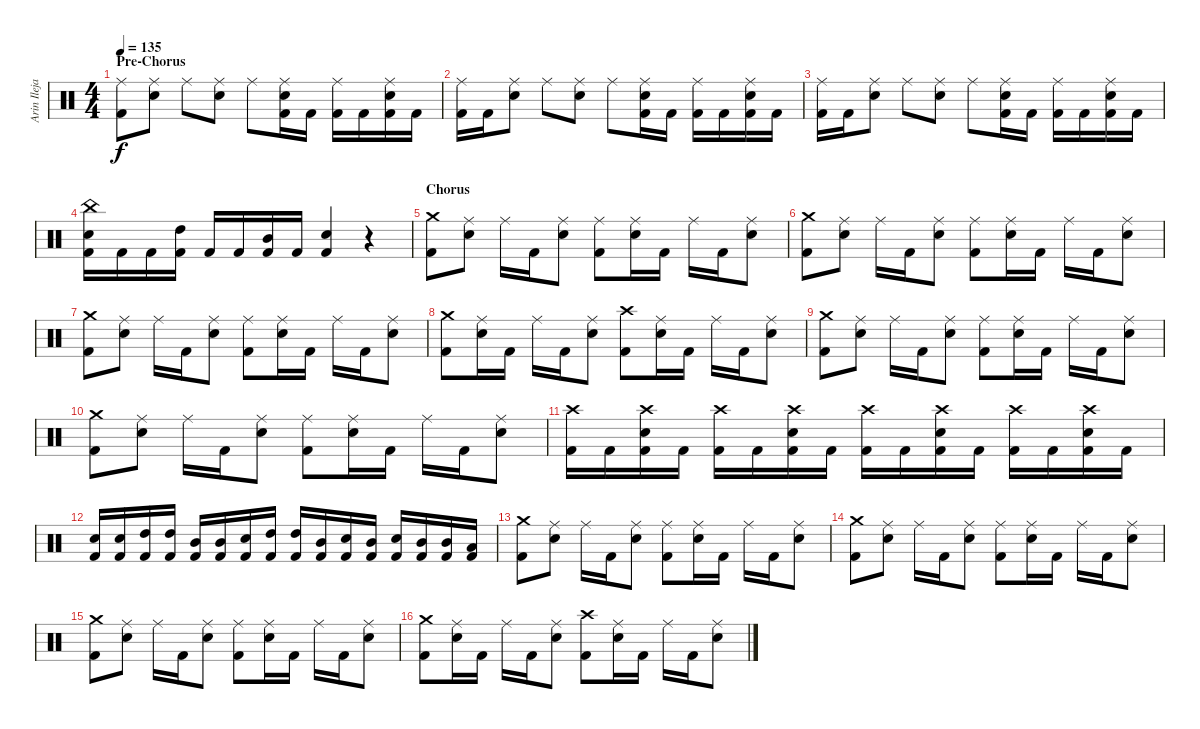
\track ("Arin Ilejay" "Arin Ileja") {instrument percussion}
\staff {score}
\articulation defaults
\ts (4 4)
\section ("" "Pre-Chorus")
\tempo 135
\clef neutral
\ks c
("Ride (middle)" "Kick (hit) 2").8{dy f} ("Ride (middle)" "Snare (hit) 2").8 "Ride (middle)".8 ("Ride (middle)" "Snare (hit) 2").8 "Ride (middle)".8 ("Ride (middle)" "Snare (hit) 2" "Kick (hit) 2").16 "Kick (hit) 2".16 ("Ride (middle)" "Kick (hit) 2").16 "Kick (hit) 2".16 ("Ride (middle)" "Snare (hit) 2" "Kick (hit) 2").16 "Kick (hit) 2".16 |
("Ride (middle)" "Kick (hit) 2").16 "Kick (hit) 2".16 ("Ride (middle)" "Snare (hit) 2").8 "Ride (middle)".8 ("Ride (middle)" "Snare (hit) 2").8 "Ride (middle)".8 ("Ride (middle)" "Snare (hit) 2" "Kick (hit) 2").16 "Kick (hit) 2".16 ("Ride (middle)" "Kick (hit) 2").16 "Kick (hit) 2".16 ("Ride (middle)" "Snare (hit) 2" "Kick (hit) 2").16 "Kick (hit) 2".16 |
("Ride (middle)" "Kick (hit) 2").16 "Kick (hit) 2".16 ("Ride (middle)" "Snare (hit) 2").8 "Ride (middle)".8 ("Ride (middle)" "Snare (hit) 2").8 "Ride (middle)".8 ("Ride (middle)" "Snare (hit) 2" "Kick (hit) 2").16 "Kick (hit) 2".16 ("Ride (middle)" "Kick (hit) 2").16 "Kick (hit) 2".16 ("Ride (middle)" "Snare (hit) 2" "Kick (hit) 2").16 "Kick (hit) 2".16 |
("China (hit)" "Kick (hit) 2" "Snare (hit) 2").16 "Kick (hit) 2".16 "Kick (hit) 2".16 ("Kick (hit) 2" "High Tom (hit)").16 "Kick (hit) 2".16 "Kick (hit) 2".16 ("Kick (hit) 2" "Mid Tom (hit)").16 "Kick (hit) 2".16 ("Kick (hit) 2" "Snare (hit) 2").4 r.4 |
\section ("" "Chorus")
("Kick (hit) 2" "Crash medium (hit)").8 ("Ride (middle)" "Snare (hit) 2").8 "Ride (middle)".16 "Kick (hit) 2".16 ("Ride (middle)" "Snare (hit) 2").8 ("Ride (middle)" "Kick (hit) 2").8 ("Ride (middle)" "Snare (hit) 2").16 "Kick (hit) 2".16 "Ride (middle)".16 "Kick (hit) 2".16 ("Ride (middle)" "Snare (hit) 2").8 |
("Kick (hit) 2" "Crash medium (hit)").8 ("Ride (middle)" "Snare (hit) 2").8 "Ride (middle)".16 "Kick (hit) 2".16 ("Ride (middle)" "Snare (hit) 2").8 ("Ride (middle)" "Kick (hit) 2").8 ("Ride (middle)" "Snare (hit) 2").16 "Kick (hit) 2".16 "Ride (middle)".16 "Kick (hit) 2".16 ("Ride (middle)" "Snare (hit) 2").8 |
("Kick (hit) 2" "Crash medium (hit)").8 ("Ride (middle)" "Snare (hit) 2").8 "Ride (middle)".16 "Kick (hit) 2".16 ("Ride (middle)" "Snare (hit) 2").8 ("Kick (hit) 2" "Ride (middle)").8 ("Ride (middle)" "Snare (hit) 2").16 "Kick (hit) 2".16 "Ride (middle)".16 "Kick (hit) 2".16 ("Ride (middle)" "Snare (hit) 2").8 |
("Kick (hit) 2" "Crash medium (hit)").8 ("Ride (middle)" "Snare (hit) 2").16 "Kick (hit) 2".16 "Ride (middle)".16 "Kick (hit) 2".16 ("Ride (middle)" "Snare (hit) 2").8 ("Kick (hit) 2" "Crash high (hit)").8 ("Ride (middle)" "Snare (hit) 2").16 "Kick (hit) 2".16 "Ride (middle)".16 "Kick (hit) 2".16 ("Ride (middle)" "Snare (hit) 2").8 |
("Kick (hit) 2" "Crash medium (hit)").8 ("Ride (middle)" "Snare (hit) 2").8 "Ride (middle)".16 "Kick (hit) 2".16 ("Ride (middle)" "Snare (hit) 2").8 ("Ride (middle)" "Kick (hit) 2").8 ("Ride (middle)" "Snare (hit) 2").16 "Kick (hit) 2".16 "Ride (middle)".16 "Kick (hit) 2".16 ("Ride (middle)" "Snare (hit) 2").8 |
("Kick (hit) 2" "Crash medium (hit)").8 ("Ride (middle)" "Snare (hit) 2").8 "Ride (middle)".16 "Kick (hit) 2".16 ("Ride (middle)" "Snare (hit) 2").8 ("Kick (hit) 2" "Ride (middle)").8 ("Ride (middle)" "Snare (hit) 2").16 "Kick (hit) 2".16 "Ride (middle)".16 "Kick (hit) 2".16 ("Ride (middle)" "Snare (hit) 2").8 |
("Kick (hit) 2" "Crash high (hit)").16 "Kick (hit) 2".16 ("Kick (hit) 2" "Crash high (hit)" "Snare (hit) 2").16 "Kick (hit) 2".16 ("Kick (hit) 2" "Crash high (hit)").16 "Kick (hit) 2".16 ("Kick (hit) 2" "Crash high (hit)" "Snare (hit) 2").16 "Kick (hit) 2".16 ("Kick (hit) 2" "Crash high (hit)").16 "Kick (hit) 2".16 ("Kick (hit) 2" "Crash high (hit)" "Snare (hit) 2").16 "Kick (hit) 2".16 ("Kick (hit) 2" "Crash high (hit)").16 "Kick (hit) 2".16 ("Kick (hit) 2" "Crash high (hit)" "Snare (hit) 2").16 "Kick (hit) 2".16 |
("Kick (hit) 2" "Snare (hit) 2").16 ("Kick (hit) 2" "Snare (hit) 2").16 ("Kick (hit) 2" "High Tom (hit)").16 ("Kick (hit) 2" "High Tom (hit)").16 ("Kick (hit) 2" "Mid Tom (hit)").16 ("Kick (hit) 2" "Mid Tom (hit)").16 ("Kick (hit) 2" "Snare (hit) 2").16 ("Kick (hit) 2" "High Tom (hit)").16 ("Kick (hit) 2" "High Tom (hit)").16 ("Kick (hit) 2" "Mid Tom (hit)").16 ("Snare (hit) 2" "Kick (hit) 2").16 ("Kick (hit) 2" "Mid Tom (hit)").16 ("Kick (hit) 2" "Snare (hit) 2").16 ("Kick (hit) 2" "Mid Tom (hit)").16 ("Kick (hit) 2" "Mid Tom (hit)").16 ("Kick (hit) 2" "Low Tom (hit)").16 |
("Kick (hit) 2" "Crash medium (hit)").8 ("Ride (middle)" "Snare (hit) 2").8 "Ride (middle)".16 "Kick (hit) 2".16 ("Ride (middle)" "Snare (hit) 2").8 ("Ride (middle)" "Kick (hit) 2").8 ("Ride (middle)" "Snare (hit) 2").16 "Kick (hit) 2".16 "Ride (middle)".16 "Kick (hit) 2".16 ("Ride (middle)" "Snare (hit) 2").8 |
("Kick (hit) 2" "Crash medium (hit)").8 ("Ride (middle)" "Snare (hit) 2").8 "Ride (middle)".16 "Kick (hit) 2".16 ("Ride (middle)" "Snare (hit) 2").8 ("Ride (middle)" "Kick (hit) 2").8 ("Ride (middle)" "Snare (hit) 2").16 "Kick (hit) 2".16 "Ride (middle)".16 "Kick (hit) 2".16 ("Ride (middle)" "Snare (hit) 2").8 |
("Kick (hit) 2" "Crash medium (hit)").8 ("Ride (middle)" "Snare (hit) 2").8 "Ride (middle)".16 "Kick (hit) 2".16 ("Ride (middle)" "Snare (hit) 2").8 ("Kick (hit) 2" "Ride (middle)").8 ("Ride (middle)" "Snare (hit) 2").16 "Kick (hit) 2".16 "Ride (middle)".16 "Kick (hit) 2".16 ("Ride (middle)" "Snare (hit) 2").8 |
("Kick (hit) 2" "Crash medium (hit)").8 ("Ride (middle)" "Snare (hit) 2").16 "Kick (hit) 2".16 "Ride (middle)".16 "Kick (hit) 2".16 ("Ride (middle)" "Snare (hit) 2").8 ("Kick (hit) 2" "Crash high (hit)").8 ("Ride (middle)" "Snare (hit) 2").16 "Kick (hit) 2".16 "Ride (middle)".16 "Kick (hit) 2".16 ("Ride (middle)" "Snare (hit) 2").8
